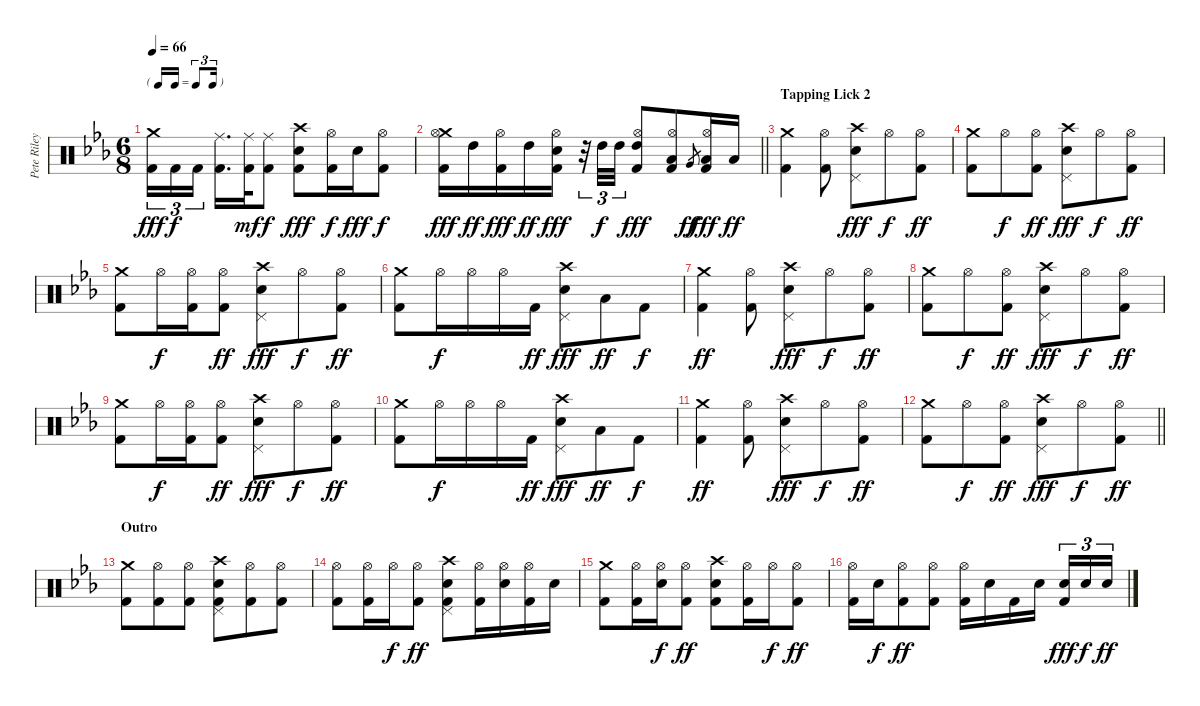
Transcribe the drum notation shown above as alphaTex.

\track ("Pete Riley, Drums" "Pete Riley") {instrument percussion}
\staff {score}
\articulation defaults
\ts (6 8)
\tf triplet16th
\tempo 66
\clef neutral
\ks cminor
("Crash medium (hit)" "Kick (hit) 2").16{tu (3 2) dy fff} "Kick (hit) 2".16{tu (3 2) dy f} "Kick (hit) 2".16{tu (3 2) beam splitsecondary} ("Ride (middle)" "Kick (hit) 2").16{d} ("Ride (middle)" "Kick (hit) 2").32{dy mf} ("Ride (middle)" "Kick (hit) 2").8{dy f} ("Crash high (hit)" "Snare (hit) 2" "Kick (hit) 2").8{dy fff} ("Hi-Hat (open)" "Kick (hit) 2").16{dy f} "Snare (hit) 2".16{dy fff} ("Hi-Hat (open)" "Kick (hit) 2").8{dy f} |
\barLineRight lightlight
("Crash medium (hit)" "Hi-Hat (open)" "Kick (hit) 2").16{dy fff} "High Tom (hit)".16{dy ff} ("Hi-Hat (open)" "Kick (hit) 2").16{dy fff} "High Tom (hit)".16{dy ff} ("Hi-Hat (open)" "Snare (hit) 2" "Kick (hit) 2").16{dy fff} r.32{tu (3 2)} "High Tom (hit)".32{tu (3 2) dy f} "High Tom (hit)".32{tu (3 2)} ("High Tom (hit)" "Hi-Hat (open)" "Kick (hit) 2").8{dy fff} ("Low Tom (hit)" "Hi-Hat (open)" "Kick (hit) 2").8 "Very Low Tom (hit)".8{gr dy ff} ("Low Floor Tom (hit)" "Hi-Hat (open)" "Kick (hit) 2").16{dy fff} "Low Floor Tom (hit)".16{dy ff} |
\section ("" "Tapping Lick 2")
("Crash medium (hit)" "Kick (hit) 2").4 ("Hi-Hat (open)" "Kick (hit) 2").8 ("Crash high (hit)" "Pedal Hi-Hat (hit)" "Snare (hit) 2").8{dy fff} "Hi-Hat (open)".8{dy f} ("Hi-Hat (open)" "Kick (hit) 2").8{dy ff} |
("Crash medium (hit)" "Kick (hit) 2").8 "Hi-Hat (open)".8{dy f} ("Hi-Hat (open)" "Kick (hit) 2").8{dy ff} ("Crash high (hit)" "Pedal Hi-Hat (hit)" "Snare (hit) 2").8{dy fff} "Hi-Hat (open)".8{dy f} ("Hi-Hat (open)" "Kick (hit) 2").8{dy ff} |
("Crash medium (hit)" "Kick (hit) 2").8 "Hi-Hat (open)".16{dy f} ("Hi-Hat (open)" "Kick (hit) 2").16 ("Hi-Hat (open)" "Kick (hit) 2").8{dy ff} ("Crash high (hit)" "Pedal Hi-Hat (hit)" "Snare (hit) 2").8{dy fff} "Hi-Hat (open)".8{dy f} ("Hi-Hat (open)" "Kick (hit) 2").8{dy ff} |
("Crash medium (hit)" "Kick (hit) 2").8 "Hi-Hat (open)".16{dy f} "Hi-Hat (open)".16 "Hi-Hat (open)".16 "Kick (hit) 2".16{dy ff} ("Crash high (hit)" "Pedal Hi-Hat (hit)" "Snare (hit) 2").8{dy fff} "Low Floor Tom (hit)".8{dy ff} "Kick (hit) 2".8{dy f} |
("Crash medium (hit)" "Kick (hit) 2").4{dy ff} ("Hi-Hat (open)" "Kick (hit) 2").8 ("Crash high (hit)" "Pedal Hi-Hat (hit)" "Snare (hit) 2").8{dy fff} "Hi-Hat (open)".8{dy f} ("Hi-Hat (open)" "Kick (hit) 2").8{dy ff} |
("Crash medium (hit)" "Kick (hit) 2").8 "Hi-Hat (open)".8{dy f} ("Hi-Hat (open)" "Kick (hit) 2").8{dy ff} ("Crash high (hit)" "Pedal Hi-Hat (hit)" "Snare (hit) 2").8{dy fff} "Hi-Hat (open)".8{dy f} ("Hi-Hat (open)" "Kick (hit) 2").8{dy ff} |
("Crash medium (hit)" "Kick (hit) 2").8 "Hi-Hat (open)".16{dy f} ("Hi-Hat (open)" "Kick (hit) 2").16 ("Hi-Hat (open)" "Kick (hit) 2").8{dy ff} ("Crash high (hit)" "Pedal Hi-Hat (hit)" "Snare (hit) 2").8{dy fff} "Hi-Hat (open)".8{dy f} ("Hi-Hat (open)" "Kick (hit) 2").8{dy ff} |
("Crash medium (hit)" "Kick (hit) 2").8 "Hi-Hat (open)".16{dy f} "Hi-Hat (open)".16 "Hi-Hat (open)".16 "Kick (hit) 2".16{dy ff} ("Crash high (hit)" "Pedal Hi-Hat (hit)" "Snare (hit) 2").8{dy fff} "Low Floor Tom (hit)".8{dy ff} "Kick (hit) 2".8{dy f} |
("Crash medium (hit)" "Kick (hit) 2").4{dy ff} ("Hi-Hat (open)" "Kick (hit) 2").8 ("Crash high (hit)" "Pedal Hi-Hat (hit)" "Snare (hit) 2").8{dy fff} "Hi-Hat (open)".8{dy f} ("Hi-Hat (open)" "Kick (hit) 2").8{dy ff} |
\barLineRight lightlight
("Crash medium (hit)" "Kick (hit) 2").8 "Hi-Hat (open)".8{dy f} ("Hi-Hat (open)" "Kick (hit) 2").8{dy ff} ("Crash high (hit)" "Pedal Hi-Hat (hit)" "Snare (hit) 2").8{dy fff} "Hi-Hat (open)".8{dy f} ("Hi-Hat (open)" "Kick (hit) 2").8{dy ff} |
\section ("" "Outro")
("Crash medium (hit)" "Kick (hit) 2").8 ("Hi-Hat (open)" "Kick (hit) 2").8 ("Hi-Hat (open)" "Kick (hit) 2").8 ("Crash high (hit)" "Pedal Hi-Hat (hit)" "Snare (hit) 2" "Kick (hit) 2").8 ("Hi-Hat (open)" "Kick (hit) 2").8 ("Hi-Hat (open)" "Kick (hit) 2").8 |
("Hi-Hat (open)" "Kick (hit) 2").8 ("Hi-Hat (open)" "Kick (hit) 2").16 "Hi-Hat (open)".16{dy f} ("Hi-Hat (open)" "Kick (hit) 2").8{dy ff} ("Crash high (hit)" "Pedal Hi-Hat (hit)" "Snare (hit) 2" "Kick (hit) 2").8 ("Hi-Hat (open)" "Kick (hit) 2").16 ("Hi-Hat (open)" "Snare (hit) 2").16 ("Hi-Hat (open)" "Kick (hit) 2").16 "Snare (hit) 2".16 |
("Crash medium (hit)" "Kick (hit) 2").8 ("Hi-Hat (open)" "Kick (hit) 2").16 ("Hi-Hat (open)" "Snare (hit) 2").16{dy f} ("Hi-Hat (open)" "Kick (hit) 2").8{dy ff} ("Crash high (hit)" "Snare (hit) 2" "Kick (hit) 2").8 ("Hi-Hat (open)" "Kick (hit) 2").16 "Hi-Hat (open)".16{dy f} ("Hi-Hat (open)" "Kick (hit) 2").8{dy ff} |
("Hi-Hat (open)" "Kick (hit) 2").16 "Snare (hit) 2".16{dy f} ("Hi-Hat (open)" "Kick (hit) 2").8{dy ff} ("Hi-Hat (open)" "Kick (hit) 2").8 ("Hi-Hat (open)" "Kick (hit) 2").16 "Snare (hit) 2".16 "Kick (hit) 2".16 "Snare (hit) 2".16{beam splitsecondary} ("Snare (hit) 2" "Kick (hit) 2").16{tu (3 2) dy fff} "Snare (hit) 2".16{tu (3 2) dy f} "Snare (hit) 2".16{tu (3 2) dy ff}
